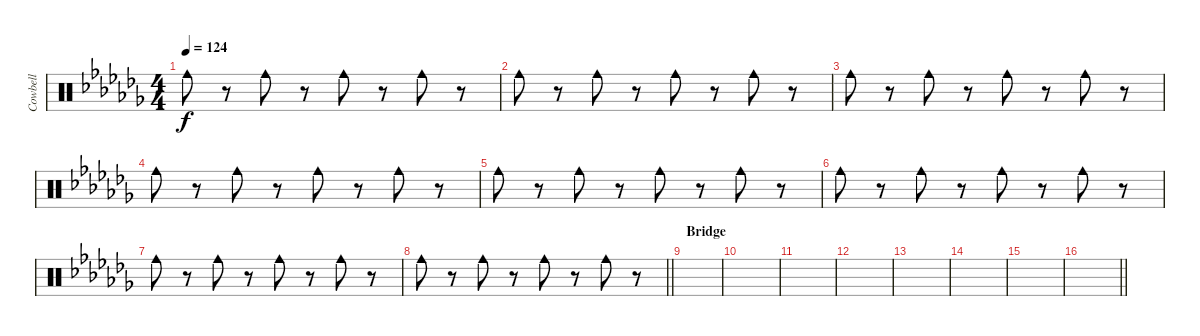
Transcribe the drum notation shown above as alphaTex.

\track ("Cowbell" "Cowbell") {instrument percussion}
\staff {score}
\articulation defaults
\ts (4 4)
\tempo 124
\clef neutral
\ks cb "Cowbell medium (hit)".8{dy f}
r.8 "Cowbell medium (hit)".8 r.8 "Cowbell medium (hit)".8 r.8 "Cowbell medium (hit)".8 r.8 |
"Cowbell medium (hit)".8 r.8 "Cowbell medium (hit)".8 r.8 "Cowbell medium (hit)".8 r.8 "Cowbell medium (hit)".8 r.8 |
"Cowbell medium (hit)".8 r.8 "Cowbell medium (hit)".8 r.8 "Cowbell medium (hit)".8 r.8 "Cowbell medium (hit)".8 r.8 |
"Cowbell medium (hit)".8 r.8 "Cowbell medium (hit)".8 r.8 "Cowbell medium (hit)".8 r.8 "Cowbell medium (hit)".8 r.8 |
"Cowbell medium (hit)".8 r.8 "Cowbell medium (hit)".8 r.8 "Cowbell medium (hit)".8 r.8 "Cowbell medium (hit)".8 r.8 |
"Cowbell medium (hit)".8 r.8 "Cowbell medium (hit)".8 r.8 "Cowbell medium (hit)".8 r.8 "Cowbell medium (hit)".8 r.8 |
"Cowbell medium (hit)".8 r.8 "Cowbell medium (hit)".8 r.8 "Cowbell medium (hit)".8 r.8 "Cowbell medium (hit)".8 r.8 |
\barLineRight lightlight "Cowbell medium (hit)".8
r.8 "Cowbell medium (hit)".8 r.8 "Cowbell medium (hit)".8 r.8 "Cowbell medium (hit)".8 r.8 |
\section ("" "Bridge")
|
|
|
|
|
|
|
\barLineRight lightlight
